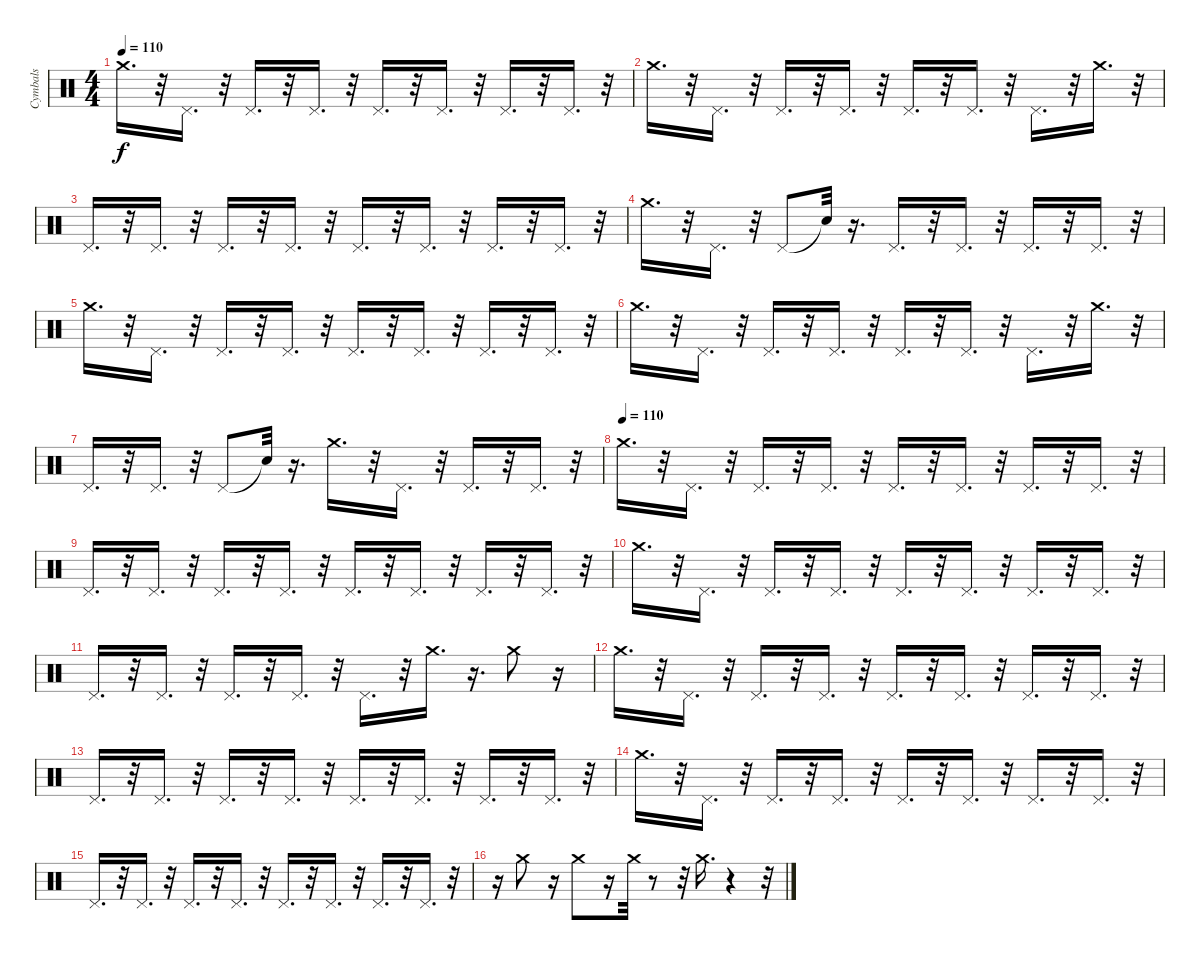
\track ("Cymbals" "Cymbals") {instrument percussion}
\staff {score}
\articulation defaults
\ts (4 4)
\tempo 110
\clef neutral
\ks c "Crash medium (hit)".16{d dy f}
r.32 "Pedal Hi-Hat (hit)".16{d} r.32 "Pedal Hi-Hat (hit)".16{d} r.32 "Pedal Hi-Hat (hit)".16{d} r.32 "Pedal Hi-Hat (hit)".16{d} r.32 "Pedal Hi-Hat (hit)".16{d} r.32 "Pedal Hi-Hat (hit)".16{d} r.32 "Pedal Hi-Hat (hit)".16{d} r.32 |
"Crash medium (hit)".16{d} r.32 "Pedal Hi-Hat (hit)".16{d} r.32 "Pedal Hi-Hat (hit)".16{d} r.32 "Pedal Hi-Hat (hit)".16{d} r.32 "Pedal Hi-Hat (hit)".16{d} r.32 "Pedal Hi-Hat (hit)".16{d} r.32 "Pedal Hi-Hat (hit)".16{d} r.32 "Crash medium (hit)".16{d} r.32 |
"Pedal Hi-Hat (hit)".16{d} r.32 "Pedal Hi-Hat (hit)".16{d} r.32 "Pedal Hi-Hat (hit)".16{d} r.32 "Pedal Hi-Hat (hit)".16{d} r.32 "Pedal Hi-Hat (hit)".16{d} r.32 "Pedal Hi-Hat (hit)".16{d} r.32 "Pedal Hi-Hat (hit)".16{d} r.32 "Pedal Hi-Hat (hit)".16{d} r.32 |
"Crash medium (hit)".16{d} r.32 "Pedal Hi-Hat (hit)".16{d} r.32 "Pedal Hi-Hat (hit)".8 "Snare (hit)"{t}.32 r.16{d} "Pedal Hi-Hat (hit)".16{d} r.32 "Pedal Hi-Hat (hit)".16{d} r.32 "Pedal Hi-Hat (hit)".16{d} r.32 "Pedal Hi-Hat (hit)".16{d} r.32 |
"Crash medium (hit)".16{d} r.32 "Pedal Hi-Hat (hit)".16{d} r.32 "Pedal Hi-Hat (hit)".16{d} r.32 "Pedal Hi-Hat (hit)".16{d} r.32 "Pedal Hi-Hat (hit)".16{d} r.32 "Pedal Hi-Hat (hit)".16{d} r.32 "Pedal Hi-Hat (hit)".16{d} r.32 "Pedal Hi-Hat (hit)".16{d} r.32 |
"Crash medium (hit)".16{d} r.32 "Pedal Hi-Hat (hit)".16{d} r.32 "Pedal Hi-Hat (hit)".16{d} r.32 "Pedal Hi-Hat (hit)".16{d} r.32 "Pedal Hi-Hat (hit)".16{d} r.32 "Pedal Hi-Hat (hit)".16{d} r.32 "Pedal Hi-Hat (hit)".16{d} r.32 "Crash medium (hit)".16{d} r.32 |
"Pedal Hi-Hat (hit)".16{d} r.32 "Pedal Hi-Hat (hit)".16{d} r.32 "Pedal Hi-Hat (hit)".8 "Snare (hit)"{t}.32 r.16{d} "Crash medium (hit)".16{d} r.32 "Pedal Hi-Hat (hit)".16{d} r.32 "Pedal Hi-Hat (hit)".16{d} r.32 "Pedal Hi-Hat (hit)".16{d} r.32 |
\tempo (110)
"Crash medium (hit)".16{d} r.32 "Pedal Hi-Hat (hit)".16{d} r.32 "Pedal Hi-Hat (hit)".16{d} r.32 "Pedal Hi-Hat (hit)".16{d} r.32 "Pedal Hi-Hat (hit)".16{d} r.32 "Pedal Hi-Hat (hit)".16{d} r.32 "Pedal Hi-Hat (hit)".16{d} r.32 "Pedal Hi-Hat (hit)".16{d} r.32 |
"Pedal Hi-Hat (hit)".16{d} r.32 "Pedal Hi-Hat (hit)".16{d} r.32 "Pedal Hi-Hat (hit)".16{d} r.32 "Pedal Hi-Hat (hit)".16{d} r.32 "Pedal Hi-Hat (hit)".16{d} r.32 "Pedal Hi-Hat (hit)".16{d} r.32 "Pedal Hi-Hat (hit)".16{d} r.32 "Pedal Hi-Hat (hit)".16{d} r.32 |
"Crash medium (hit)".16{d} r.32 "Pedal Hi-Hat (hit)".16{d} r.32 "Pedal Hi-Hat (hit)".16{d} r.32 "Pedal Hi-Hat (hit)".16{d} r.32 "Pedal Hi-Hat (hit)".16{d} r.32 "Pedal Hi-Hat (hit)".16{d} r.32 "Pedal Hi-Hat (hit)".16{d} r.32 "Pedal Hi-Hat (hit)".16{d} r.32 |
"Pedal Hi-Hat (hit)".16{d} r.32 "Pedal Hi-Hat (hit)".16{d} r.32 "Pedal Hi-Hat (hit)".16{d} r.32 "Pedal Hi-Hat (hit)".16{d} r.32 "Pedal Hi-Hat (hit)".16{d} r.32 "Crash medium (hit)".16{d} r.16{d} "Crash medium (hit)".8 r.16 |
"Crash medium (hit)".16{d} r.32 "Pedal Hi-Hat (hit)".16{d} r.32 "Pedal Hi-Hat (hit)".16{d} r.32 "Pedal Hi-Hat (hit)".16{d} r.32 "Pedal Hi-Hat (hit)".16{d} r.32 "Pedal Hi-Hat (hit)".16{d} r.32 "Pedal Hi-Hat (hit)".16{d} r.32 "Pedal Hi-Hat (hit)".16{d} r.32 |
"Pedal Hi-Hat (hit)".16{d} r.32 "Pedal Hi-Hat (hit)".16{d} r.32 "Pedal Hi-Hat (hit)".16{d} r.32 "Pedal Hi-Hat (hit)".16{d} r.32 "Pedal Hi-Hat (hit)".16{d} r.32 "Pedal Hi-Hat (hit)".16{d} r.32 "Pedal Hi-Hat (hit)".16{d} r.32 "Pedal Hi-Hat (hit)".16{d} r.32 |
"Crash medium (hit)".16{d} r.32 "Pedal Hi-Hat (hit)".16{d} r.32 "Pedal Hi-Hat (hit)".16{d} r.32 "Pedal Hi-Hat (hit)".16{d} r.32 "Pedal Hi-Hat (hit)".16{d} r.32 "Pedal Hi-Hat (hit)".16{d} r.32 "Pedal Hi-Hat (hit)".16{d} r.32 "Pedal Hi-Hat (hit)".16{d} r.32 |
"Pedal Hi-Hat (hit)".16{d} r.32 "Pedal Hi-Hat (hit)".16{d} r.32 "Pedal Hi-Hat (hit)".16{d} r.32 "Pedal Hi-Hat (hit)".16{d} r.32 "Pedal Hi-Hat (hit)".16{d} r.32 "Pedal Hi-Hat (hit)".16{d} r.32 "Pedal Hi-Hat (hit)".16{d} r.32 "Pedal Hi-Hat (hit)".16{d} r.32 |
r.16 "Crash medium (hit)".8 r.16 "Crash medium (hit)".8 r.16 "Crash medium (hit)".32 r.8 r.32 "Crash medium (hit)".16{d} r.4 r.32
